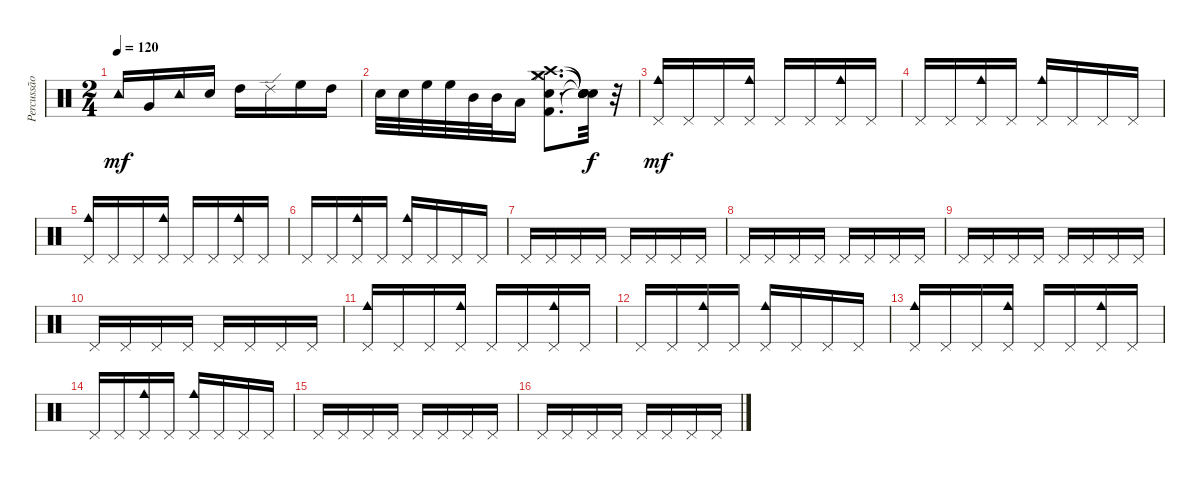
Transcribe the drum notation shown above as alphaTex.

\track ("Percussão" "Percussão") {instrument percussion}
\staff {score}
\articulation defaults
\ts (2 4)
\tempo 120
\clef neutral
\ks c "Tambourine (hit)".16{dy mf} "Very Low Tom (hit)".16 "Tambourine (hit)".16 "Snare (hit) 2".16 "High Tom (hit)".16 "Ride (edge) 2".16 "High Floor Tom (hit)".16 "High Tom (hit)".16
|
"Snare (hit) 2".32 "Snare (hit) 2".32 "High Floor Tom (hit)".32 "High Floor Tom (hit)".32 "Mid Tom (hit)".32 "Mid Tom (hit)".32 "Low Floor Tom (hit)".16 ("Hi-Hat (closed)" "Crash medium (hit)" "Snare (hit) 2" "Kick (hit) 2" "Crash high (hit)").8{d} ("Snare (hit)"{t} "Snare (hit)"{t} "Snare (hit)"{t} "Snare (hit)"{t} "Snare (hit)"{t}).32{dy f} r.32 |
("Pedal Hi-Hat (hit)" "Cowbell medium (hit)").16{dy mf} "Pedal Hi-Hat (hit)".16 "Pedal Hi-Hat (hit)".16 ("Pedal Hi-Hat (hit)" "Cowbell medium (hit)").16 "Pedal Hi-Hat (hit)".16 "Pedal Hi-Hat (hit)".16 ("Pedal Hi-Hat (hit)" "Cowbell medium (hit)").16 "Pedal Hi-Hat (hit)".16 |
"Pedal Hi-Hat (hit)".16 "Pedal Hi-Hat (hit)".16 ("Pedal Hi-Hat (hit)" "Cowbell medium (hit)").16 "Pedal Hi-Hat (hit)".16 ("Pedal Hi-Hat (hit)" "Cowbell medium (hit)").16 "Pedal Hi-Hat (hit)".16 "Pedal Hi-Hat (hit)".16 "Pedal Hi-Hat (hit)".16 |
("Pedal Hi-Hat (hit)" "Cowbell medium (hit)").16 "Pedal Hi-Hat (hit)".16 "Pedal Hi-Hat (hit)".16 ("Pedal Hi-Hat (hit)" "Cowbell medium (hit)").16 "Pedal Hi-Hat (hit)".16 "Pedal Hi-Hat (hit)".16 ("Pedal Hi-Hat (hit)" "Cowbell medium (hit)").16 "Pedal Hi-Hat (hit)".16 |
"Pedal Hi-Hat (hit)".16 "Pedal Hi-Hat (hit)".16 ("Pedal Hi-Hat (hit)" "Cowbell medium (hit)").16 "Pedal Hi-Hat (hit)".16 ("Pedal Hi-Hat (hit)" "Cowbell medium (hit)").16 "Pedal Hi-Hat (hit)".16 "Pedal Hi-Hat (hit)".16 "Pedal Hi-Hat (hit)".16 |
"Pedal Hi-Hat (hit)".16 "Pedal Hi-Hat (hit)".16 "Pedal Hi-Hat (hit)".16 "Pedal Hi-Hat (hit)".16 "Pedal Hi-Hat (hit)".16 "Pedal Hi-Hat (hit)".16 "Pedal Hi-Hat (hit)".16 "Pedal Hi-Hat (hit)".16 |
"Pedal Hi-Hat (hit)".16 "Pedal Hi-Hat (hit)".16 "Pedal Hi-Hat (hit)".16 "Pedal Hi-Hat (hit)".16 "Pedal Hi-Hat (hit)".16 "Pedal Hi-Hat (hit)".16 "Pedal Hi-Hat (hit)".16 "Pedal Hi-Hat (hit)".16 |
"Pedal Hi-Hat (hit)".16 "Pedal Hi-Hat (hit)".16 "Pedal Hi-Hat (hit)".16 "Pedal Hi-Hat (hit)".16 "Pedal Hi-Hat (hit)".16 "Pedal Hi-Hat (hit)".16 "Pedal Hi-Hat (hit)".16 "Pedal Hi-Hat (hit)".16 |
"Pedal Hi-Hat (hit)".16 "Pedal Hi-Hat (hit)".16 "Pedal Hi-Hat (hit)".16 "Pedal Hi-Hat (hit)".16 "Pedal Hi-Hat (hit)".16 "Pedal Hi-Hat (hit)".16 "Pedal Hi-Hat (hit)".16 "Pedal Hi-Hat (hit)".16 |
("Pedal Hi-Hat (hit)" "Cowbell medium (hit)").16 "Pedal Hi-Hat (hit)".16 "Pedal Hi-Hat (hit)".16 ("Pedal Hi-Hat (hit)" "Cowbell medium (hit)").16 "Pedal Hi-Hat (hit)".16 "Pedal Hi-Hat (hit)".16 ("Pedal Hi-Hat (hit)" "Cowbell medium (hit)").16 "Pedal Hi-Hat (hit)".16 |
"Pedal Hi-Hat (hit)".16 "Pedal Hi-Hat (hit)".16 ("Pedal Hi-Hat (hit)" "Cowbell medium (hit)").16 "Pedal Hi-Hat (hit)".16 ("Pedal Hi-Hat (hit)" "Cowbell medium (hit)").16 "Pedal Hi-Hat (hit)".16 "Pedal Hi-Hat (hit)".16 "Pedal Hi-Hat (hit)".16 |
("Pedal Hi-Hat (hit)" "Cowbell medium (hit)").16 "Pedal Hi-Hat (hit)".16 "Pedal Hi-Hat (hit)".16 ("Pedal Hi-Hat (hit)" "Cowbell medium (hit)").16 "Pedal Hi-Hat (hit)".16 "Pedal Hi-Hat (hit)".16 ("Pedal Hi-Hat (hit)" "Cowbell medium (hit)").16 "Pedal Hi-Hat (hit)".16 |
"Pedal Hi-Hat (hit)".16 "Pedal Hi-Hat (hit)".16 ("Pedal Hi-Hat (hit)" "Cowbell medium (hit)").16 "Pedal Hi-Hat (hit)".16 ("Pedal Hi-Hat (hit)" "Cowbell medium (hit)").16 "Pedal Hi-Hat (hit)".16 "Pedal Hi-Hat (hit)".16 "Pedal Hi-Hat (hit)".16 |
"Pedal Hi-Hat (hit)".16 "Pedal Hi-Hat (hit)".16 "Pedal Hi-Hat (hit)".16 "Pedal Hi-Hat (hit)".16 "Pedal Hi-Hat (hit)".16 "Pedal Hi-Hat (hit)".16 "Pedal Hi-Hat (hit)".16 "Pedal Hi-Hat (hit)".16 |
"Pedal Hi-Hat (hit)".16 "Pedal Hi-Hat (hit)".16 "Pedal Hi-Hat (hit)".16 "Pedal Hi-Hat (hit)".16 "Pedal Hi-Hat (hit)".16 "Pedal Hi-Hat (hit)".16 "Pedal Hi-Hat (hit)".16 "Pedal Hi-Hat (hit)".16
